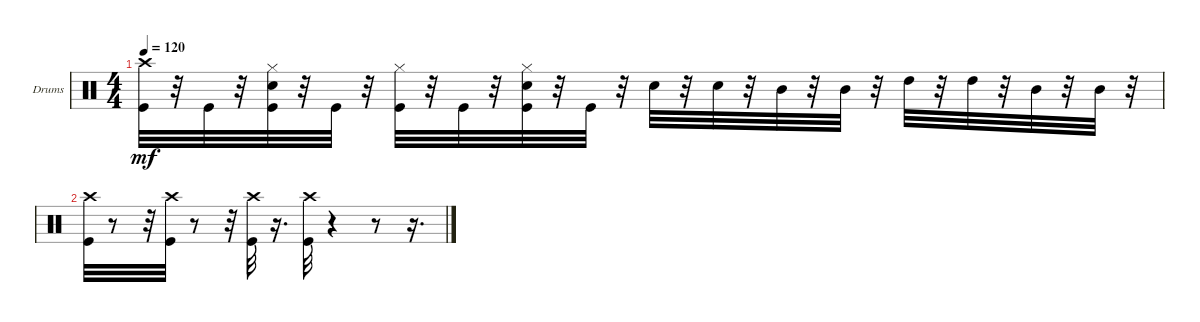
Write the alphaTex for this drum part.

\bracketExtendMode groupsimilarinstruments
\firstSystemTrackNameOrientation horizontal
\otherSystemsTrackNameOrientation horizontal
\track ("" "Drums") {instrument percussion}
\staff {score}
\articulation defaults
\ts (4 4)
\tempo 120
\clef neutral
\ks c
("Crash high (hit)" "Kick (hit)").32{dy mf} r.32 "Kick (hit)".32 r.32 ("Kick (hit)" "Hi-Hat (closed)" "Snare (hit) 2").32 r.32 "Kick (hit)".32 r.32 ("Kick (hit)" "Hi-Hat (closed)").32 r.32 "Kick (hit)".32 r.32 ("Kick (hit)" "Snare (hit) 2" "Hi-Hat (closed)").32 r.32 "Kick (hit)".32 r.32 "Snare (hit) 2".32 r.32 "Snare (hit) 2".32 r.32 "Mid Tom (hit)".32 r.32 "Mid Tom (hit)".32 r.32 "High Tom (hit)".32 r.32 "High Tom (hit)".32 r.32 "Mid Tom (hit)".32 r.32 "Mid Tom (hit)".32 r.32 |
("Crash high (hit)" "Kick (hit)").32 r.8 r.32 ("Crash high (hit)" "Kick (hit)").32 r.8 r.32 ("Crash high (hit)" "Kick (hit)").32 r.16{d} ("Crash high (hit)" "Kick (hit)").32 r.4 r.8 r.16{d}
